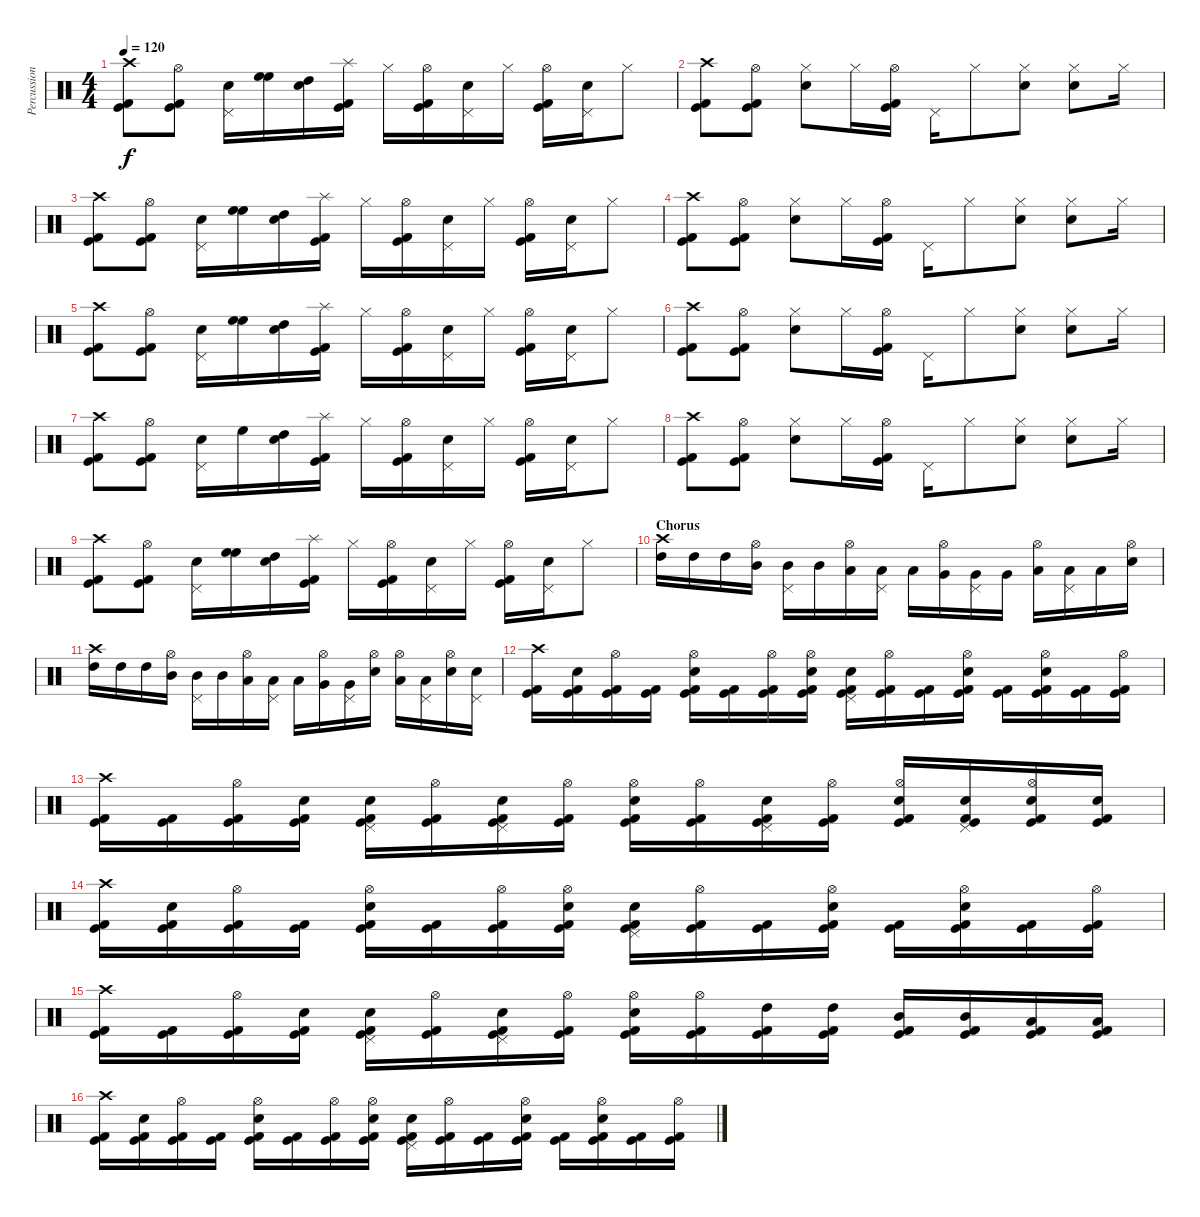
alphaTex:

\track ("Percussion" "Percussion") {instrument percussion}
\staff {score}
\articulation defaults
\ts (4 4)
\tempo 120
\clef neutral
\ks c
("Crash high (hit)" "Kick (hit) 2" "Kick (hit)").8{dy f} ("Hi-Hat (open)" "Kick (hit) 2" "Kick (hit)").8 ("Pedal Hi-Hat (hit)" "Snare (hit) 2").16 ("High Floor Tom (hit)" "High Floor Tom (hit)").16 ("Snare (hit) 2" "High Tom (hit)").16 ("Splash (hit)" "Kick (hit) 2" "Kick (hit)").16 "Hi-Hat (closed)".16 ("Hi-Hat (open)" "Kick (hit) 2" "Kick (hit)").16 ("Pedal Hi-Hat (hit)" "Snare (hit) 2").16 "Hi-Hat (closed)".16 ("Hi-Hat (open)" "Kick (hit) 2" "Kick (hit)").16 ("Pedal Hi-Hat (hit)" "Snare (hit) 2").16 "Hi-Hat (closed)".8 |
("Crash high (hit)" "Kick (hit) 2" "Kick (hit)").8 ("Hi-Hat (open)" "Kick (hit) 2" "Kick (hit)").8 ("Hi-Hat (closed)" "Snare (hit) 2").8 "Hi-Hat (closed)".16 ("Hi-Hat (open)" "Kick (hit) 2" "Kick (hit)").16 "Pedal Hi-Hat (hit)".16 "Hi-Hat (closed)".8 ("Hi-Hat (closed)" "Snare (hit) 2").8 ("Hi-Hat (closed)" "Snare (hit) 2").8 "Hi-Hat (closed)".16 |
("Crash high (hit)" "Kick (hit) 2" "Kick (hit)").8 ("Hi-Hat (open)" "Kick (hit) 2" "Kick (hit)").8 ("Pedal Hi-Hat (hit)" "Snare (hit) 2").16 ("High Floor Tom (hit)" "High Floor Tom (hit)").16 ("Snare (hit) 2" "High Tom (hit)").16 ("Splash (hit)" "Kick (hit) 2" "Kick (hit)").16 "Hi-Hat (closed)".16 ("Hi-Hat (open)" "Kick (hit) 2" "Kick (hit)").16 ("Pedal Hi-Hat (hit)" "Snare (hit) 2").16 "Hi-Hat (closed)".16 ("Hi-Hat (open)" "Kick (hit) 2" "Kick (hit)").16 ("Pedal Hi-Hat (hit)" "Snare (hit) 2").16 "Hi-Hat (closed)".8 |
("Crash high (hit)" "Kick (hit) 2" "Kick (hit)").8 ("Hi-Hat (open)" "Kick (hit) 2" "Kick (hit)").8 ("Hi-Hat (closed)" "Snare (hit) 2").8 "Hi-Hat (closed)".16 ("Hi-Hat (open)" "Kick (hit) 2" "Kick (hit)").16 "Pedal Hi-Hat (hit)".16 "Hi-Hat (closed)".8 ("Hi-Hat (closed)" "Snare (hit) 2").8 ("Hi-Hat (closed)" "Snare (hit) 2").8 "Hi-Hat (closed)".16 |
("Crash high (hit)" "Kick (hit) 2" "Kick (hit)").8 ("Hi-Hat (open)" "Kick (hit) 2" "Kick (hit)").8 ("Pedal Hi-Hat (hit)" "Snare (hit) 2").16 ("High Floor Tom (hit)" "High Floor Tom (hit)").16 ("Snare (hit) 2" "High Tom (hit)").16 ("Splash (hit)" "Kick (hit) 2" "Kick (hit)").16 "Hi-Hat (closed)".16 ("Hi-Hat (open)" "Kick (hit) 2" "Kick (hit)").16 ("Pedal Hi-Hat (hit)" "Snare (hit) 2").16 "Hi-Hat (closed)".16 ("Hi-Hat (open)" "Kick (hit) 2" "Kick (hit)").16 ("Pedal Hi-Hat (hit)" "Snare (hit) 2").16 "Hi-Hat (closed)".8 |
("Crash high (hit)" "Kick (hit) 2" "Kick (hit)").8 ("Hi-Hat (open)" "Kick (hit) 2" "Kick (hit)").8 ("Hi-Hat (closed)" "Snare (hit) 2").8 "Hi-Hat (closed)".16 ("Hi-Hat (open)" "Kick (hit) 2" "Kick (hit)").16 "Pedal Hi-Hat (hit)".16 "Hi-Hat (closed)".8 ("Hi-Hat (closed)" "Snare (hit) 2").8 ("Hi-Hat (closed)" "Snare (hit) 2").8 "Hi-Hat (closed)".16 |
("Crash high (hit)" "Kick (hit) 2" "Kick (hit)").8 ("Hi-Hat (open)" "Kick (hit) 2" "Kick (hit)").8 ("Pedal Hi-Hat (hit)" "Snare (hit) 2").16 "High Floor Tom (hit)".16 ("Snare (hit) 2" "High Tom (hit)").16 ("Splash (hit)" "Kick (hit) 2" "Kick (hit)").16 "Hi-Hat (closed)".16 ("Hi-Hat (open)" "Kick (hit) 2" "Kick (hit)").16 ("Pedal Hi-Hat (hit)" "Snare (hit) 2").16 "Hi-Hat (closed)".16 ("Hi-Hat (open)" "Kick (hit) 2" "Kick (hit)").16 ("Pedal Hi-Hat (hit)" "Snare (hit) 2").16 "Hi-Hat (closed)".8 |
("Crash high (hit)" "Kick (hit) 2" "Kick (hit)").8 ("Hi-Hat (open)" "Kick (hit) 2" "Kick (hit)").8 ("Hi-Hat (closed)" "Snare (hit) 2").8 "Hi-Hat (closed)".16 ("Hi-Hat (open)" "Kick (hit) 2" "Kick (hit)").16 "Pedal Hi-Hat (hit)".16 "Hi-Hat (closed)".8 ("Hi-Hat (closed)" "Snare (hit) 2").8 ("Hi-Hat (closed)" "Snare (hit) 2").8 "Hi-Hat (closed)".16 |
("Crash high (hit)" "Kick (hit) 2" "Kick (hit)").8 ("Hi-Hat (open)" "Kick (hit) 2" "Kick (hit)").8 ("Pedal Hi-Hat (hit)" "Snare (hit) 2").16 ("High Floor Tom (hit)" "High Floor Tom (hit)").16 ("Snare (hit) 2" "High Tom (hit)").16 ("Splash (hit)" "Kick (hit) 2" "Kick (hit)").16 "Hi-Hat (closed)".16 ("Hi-Hat (open)" "Kick (hit) 2" "Kick (hit)").16 ("Pedal Hi-Hat (hit)" "Snare (hit) 2").16 "Hi-Hat (closed)".16 ("Hi-Hat (open)" "Kick (hit) 2" "Kick (hit)").16 ("Pedal Hi-Hat (hit)" "Snare (hit) 2").16 "Hi-Hat (closed)".8 |
\section ("" "Chorus")
("Crash high (hit)" "High Tom (hit)").16 "High Tom (hit)".16 "High Tom (hit)".16 ("Hi-Hat (open)" "Mid Tom (hit)").16 ("Pedal Hi-Hat (hit)" "Mid Tom (hit)").16 "Mid Tom (hit)".16 ("Hi-Hat (open)" "Low Tom (hit)").16 ("Pedal Hi-Hat (hit)" "Low Tom (hit)").16 "Low Tom (hit)".16 ("Hi-Hat (open)" "Very Low Tom (hit)").16 ("Pedal Hi-Hat (hit)" "Very Low Tom (hit)").16 "Very Low Tom (hit)".16 ("Hi-Hat (open)" "Low Floor Tom (hit)").16 ("Pedal Hi-Hat (hit)" "Low Floor Tom (hit)").16 "Low Floor Tom (hit)".16 ("Hi-Hat (open)" "Electric Snare (hit)").16 |
("Crash high (hit)" "High Tom (hit)").16 "High Tom (hit)".16 "High Tom (hit)".16 ("Hi-Hat (open)" "Mid Tom (hit)").16 ("Pedal Hi-Hat (hit)" "Mid Tom (hit)").16 "Mid Tom (hit)".16 ("Hi-Hat (open)" "Low Tom (hit)").16 ("Pedal Hi-Hat (hit)" "Low Tom (hit)").16 "Low Tom (hit)".16 ("Hi-Hat (open)" "Very Low Tom (hit)").16 ("Pedal Hi-Hat (hit)" "Very Low Tom (hit)").16 ("Hi-Hat (open)" "Electric Snare (hit)").16 ("Hi-Hat (open)" "Low Floor Tom (hit)").16 ("Pedal Hi-Hat (hit)" "Low Floor Tom (hit)").16 ("Hi-Hat (open)" "Electric Snare (hit)").16 ("Pedal Hi-Hat (hit)" "Electric Snare (hit)").16 |
("Crash high (hit)" "Kick (hit) 2" "Kick (hit)").16 ("Snare (hit) 2" "Kick (hit) 2" "Kick (hit)").16 ("Hi-Hat (open)" "Kick (hit) 2" "Kick (hit)").16 ("Kick (hit) 2" "Kick (hit)").16 ("Hi-Hat (open)" "Snare (hit) 2" "Kick (hit) 2" "Kick (hit)").16 ("Kick (hit) 2" "Kick (hit)").16 ("Hi-Hat (open)" "Kick (hit) 2" "Kick (hit)").16 ("Hi-Hat (open)" "Snare (hit) 2" "Kick (hit) 2" "Kick (hit)").16 ("Pedal Hi-Hat (hit)" "Snare (hit) 2" "Kick (hit) 2" "Kick (hit)").16 ("Hi-Hat (open)" "Kick (hit) 2" "Kick (hit)").16 ("Kick (hit) 2" "Kick (hit)").16 ("Hi-Hat (open)" "Snare (hit) 2" "Kick (hit) 2" "Kick (hit)").16 ("Kick (hit) 2" "Kick (hit)").16 ("Hi-Hat (open)" "Snare (hit) 2" "Kick (hit) 2" "Kick (hit)").16 ("Kick (hit) 2" "Kick (hit)").16 ("Hi-Hat (open)" "Kick (hit) 2" "Kick (hit)").16 |
("Crash high (hit)" "Kick (hit) 2" "Kick (hit)").16 ("Kick (hit) 2" "Kick (hit)").16 ("Hi-Hat (open)" "Kick (hit) 2" "Kick (hit)").16 ("Snare (hit) 2" "Kick (hit) 2" "Kick (hit)").16 ("Pedal Hi-Hat (hit)" "Snare (hit) 2" "Kick (hit) 2" "Kick (hit)").16 ("Hi-Hat (open)" "Kick (hit) 2" "Kick (hit)").16 ("Pedal Hi-Hat (hit)" "Snare (hit) 2" "Kick (hit) 2" "Kick (hit)").16 ("Hi-Hat (open)" "Kick (hit) 2" "Kick (hit)").16 ("Hi-Hat (open)" "Snare (hit) 2" "Kick (hit) 2" "Kick (hit)").16 ("Hi-Hat (open)" "Kick (hit) 2" "Kick (hit)").16 ("Pedal Hi-Hat (hit)" "Snare (hit) 2" "Kick (hit) 2" "Kick (hit)").16 ("Hi-Hat (open)" "Kick (hit) 2" "Kick (hit)").16 ("Hi-Hat (open)" "Snare (hit) 2" "Kick (hit) 2" "Kick (hit)").16 ("Pedal Hi-Hat (hit)" "Snare (hit) 2" "Kick (hit) 2" "Kick (hit)").16 ("Hi-Hat (open)" "Snare (hit) 2" "Kick (hit) 2" "Kick (hit)").16 ("Snare (hit) 2" "Kick (hit) 2" "Kick (hit)").16 |
("Crash high (hit)" "Kick (hit) 2" "Kick (hit)").16 ("Snare (hit) 2" "Kick (hit) 2" "Kick (hit)").16 ("Hi-Hat (open)" "Kick (hit) 2" "Kick (hit)").16 ("Kick (hit) 2" "Kick (hit)").16 ("Hi-Hat (open)" "Snare (hit) 2" "Kick (hit) 2" "Kick (hit)").16 ("Kick (hit) 2" "Kick (hit)").16 ("Hi-Hat (open)" "Kick (hit) 2" "Kick (hit)").16 ("Hi-Hat (open)" "Snare (hit) 2" "Kick (hit) 2" "Kick (hit)").16 ("Pedal Hi-Hat (hit)" "Snare (hit) 2" "Kick (hit) 2" "Kick (hit)").16 ("Hi-Hat (open)" "Kick (hit) 2" "Kick (hit)").16 ("Kick (hit) 2" "Kick (hit)").16 ("Hi-Hat (open)" "Snare (hit) 2" "Kick (hit) 2" "Kick (hit)").16 ("Kick (hit) 2" "Kick (hit)").16 ("Hi-Hat (open)" "Snare (hit) 2" "Kick (hit) 2" "Kick (hit)").16 ("Kick (hit) 2" "Kick (hit)").16 ("Hi-Hat (open)" "Kick (hit) 2" "Kick (hit)").16 |
("Crash high (hit)" "Kick (hit) 2" "Kick (hit)").16 ("Kick (hit) 2" "Kick (hit)").16 ("Hi-Hat (open)" "Kick (hit) 2" "Kick (hit)").16 ("Snare (hit) 2" "Kick (hit) 2" "Kick (hit)").16 ("Pedal Hi-Hat (hit)" "Snare (hit) 2" "Kick (hit) 2" "Kick (hit)").16 ("Hi-Hat (open)" "Kick (hit) 2" "Kick (hit)").16 ("Pedal Hi-Hat (hit)" "Snare (hit) 2" "Kick (hit) 2" "Kick (hit)").16 ("Hi-Hat (open)" "Kick (hit) 2" "Kick (hit)").16 ("Hi-Hat (open)" "Snare (hit) 2" "Kick (hit) 2" "Kick (hit)").16 ("Hi-Hat (open)" "Kick (hit) 2" "Kick (hit)").16 ("High Tom (hit)" "Kick (hit) 2" "Kick (hit)").16 ("High Tom (hit)" "Kick (hit) 2" "Kick (hit)").16 ("Mid Tom (hit)" "Kick (hit) 2" "Kick (hit)").16 ("Mid Tom (hit)" "Kick (hit) 2" "Kick (hit)").16 ("Low Tom (hit)" "Kick (hit) 2" "Kick (hit)").16 ("Low Tom (hit)" "Kick (hit) 2" "Kick (hit)").16 |
("Crash high (hit)" "Kick (hit) 2" "Kick (hit)").16 ("Snare (hit) 2" "Kick (hit) 2" "Kick (hit)").16 ("Hi-Hat (open)" "Kick (hit) 2" "Kick (hit)").16 ("Kick (hit) 2" "Kick (hit)").16 ("Hi-Hat (open)" "Snare (hit) 2" "Kick (hit) 2" "Kick (hit)").16 ("Kick (hit) 2" "Kick (hit)").16 ("Hi-Hat (open)" "Kick (hit) 2" "Kick (hit)").16 ("Hi-Hat (open)" "Snare (hit) 2" "Kick (hit) 2" "Kick (hit)").16 ("Pedal Hi-Hat (hit)" "Snare (hit) 2" "Kick (hit) 2" "Kick (hit)").16 ("Hi-Hat (open)" "Kick (hit) 2" "Kick (hit)").16 ("Kick (hit) 2" "Kick (hit)").16 ("Hi-Hat (open)" "Snare (hit) 2" "Kick (hit) 2" "Kick (hit)").16 ("Kick (hit) 2" "Kick (hit)").16 ("Hi-Hat (open)" "Snare (hit) 2" "Kick (hit) 2" "Kick (hit)").16 ("Kick (hit) 2" "Kick (hit)").16 ("Hi-Hat (open)" "Kick (hit) 2" "Kick (hit)").16
